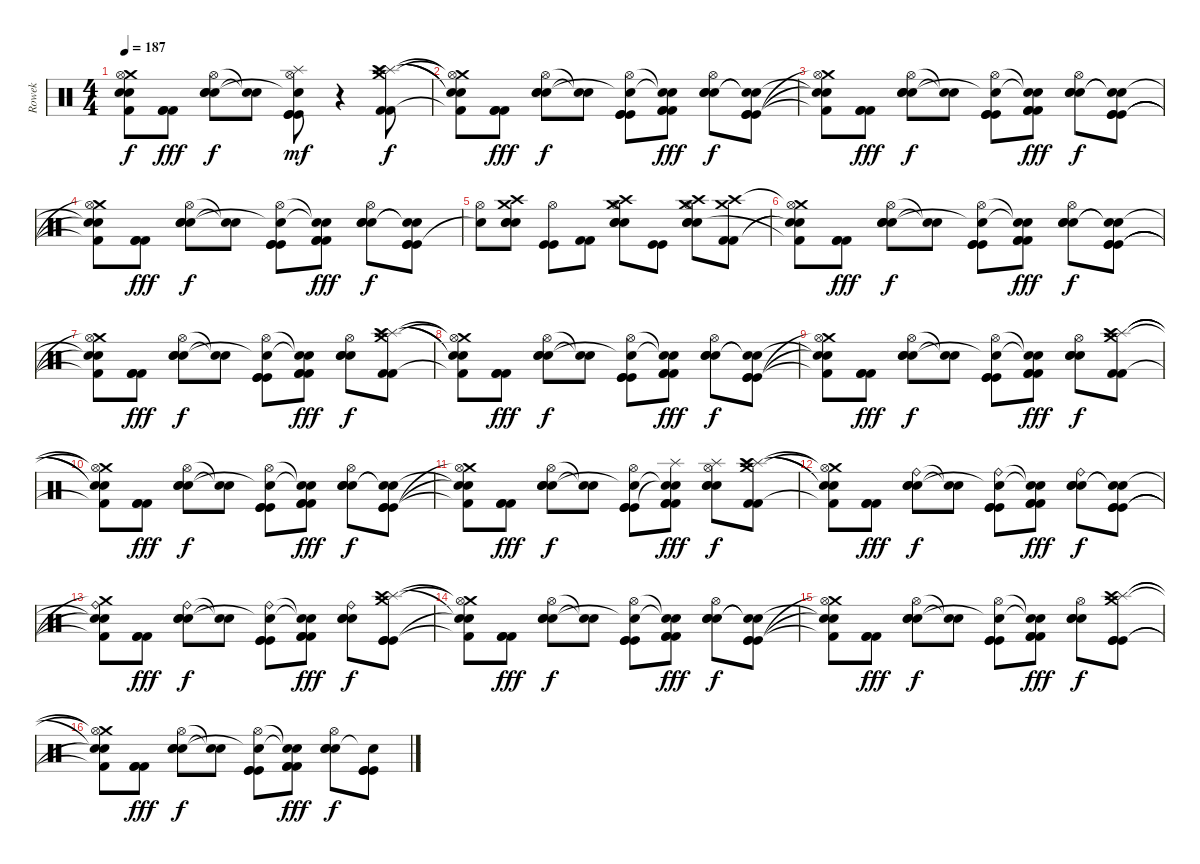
\track ("Rowek" "Rowek") {instrument percussion}
\staff {score}
\articulation defaults
\ts (4 4)
\tempo 187
\clef neutral
\ks c
("Crash medium (hit)"{t} "Hi-Hat (open)" "Snare (hit)"{t} "Snare (hit)"{t} "Kick (hit) 2"{t}).8{dy f} ("Kick (hit) 2" "Kick (hit) 2" "Kick (hit) 2").8{dy fff} ("Hi-Hat (open)" "Electric Snare (hit)" "Electric Snare (hit)" "Electric Snare (hit)").8{dy f} ("Snare (hit)"{t} "Snare (hit)"{t}).8 ("Kick (hit)" "Splash (hit)" "Hi-Hat (open)" "Snare (hit)"{t} "Kick (hit)" "Kick (hit)").8{dy mf} r.4 ("Crash medium (hit)" "Splash (hit)" "Crash high (hit)" "Splash (hit)" "Kick (hit) 2" "Kick (hit) 2").8{dy f} |
("Crash medium (hit)"{t} "Hi-Hat (open)"{t} "Snare (hit)"{t} "Snare (hit)"{t} "Kick (hit) 2"{t}).8 ("Kick (hit) 2" "Kick (hit) 2" "Kick (hit) 2").8{dy fff} ("Hi-Hat (open)" "Electric Snare (hit)" "Electric Snare (hit)" "Electric Snare (hit)").8{dy f} ("Snare (hit)"{t} "Snare (hit)"{t}).8 ("Kick (hit)" "Hi-Hat (open)" "Snare (hit)"{t} "Kick (hit)" "Kick (hit)").8 ("Kick (hit) 2" "Snare (hit)"{t} "Snare (hit)"{t} "Kick (hit) 2" "Kick (hit) 2").8{dy fff} ("Hi-Hat (open)" "Electric Snare (hit)" "Electric Snare (hit)" "Electric Snare (hit)").8{dy f} ("Kick (hit)" "Snare (hit)"{t} "Snare (hit)"{t} "Kick (hit)" "Kick (hit)").8 |
("Crash medium (hit)"{t} "Hi-Hat (open)" "Snare (hit)"{t} "Snare (hit)"{t} "Kick (hit) 2"{t}).8 ("Kick (hit) 2" "Kick (hit) 2" "Kick (hit) 2").8{dy fff} ("Hi-Hat (open)" "Electric Snare (hit)" "Electric Snare (hit)" "Electric Snare (hit)").8{dy f} ("Snare (hit)"{t} "Snare (hit)"{t}).8 ("Kick (hit)" "Hi-Hat (open)" "Snare (hit)"{t} "Kick (hit)" "Kick (hit)").8 ("Kick (hit) 2" "Snare (hit)"{t} "Snare (hit)"{t} "Kick (hit) 2" "Kick (hit) 2").8{dy fff} ("Hi-Hat (open)" "Electric Snare (hit)" "Electric Snare (hit)" "Electric Snare (hit)").8{dy f} ("Kick (hit)" "Snare (hit)"{t} "Snare (hit)"{t} "Kick (hit)" "Kick (hit)").8 |
("Crash medium (hit)"{t} "Hi-Hat (open)" "Snare (hit)"{t} "Snare (hit)"{t} "Kick (hit) 2"{t}).8 ("Kick (hit) 2" "Kick (hit) 2" "Kick (hit) 2").8{dy fff} ("Hi-Hat (open)" "Electric Snare (hit)" "Electric Snare (hit)" "Electric Snare (hit)").8{dy f} ("Snare (hit)"{t} "Snare (hit)"{t}).8 ("Kick (hit)" "Hi-Hat (open)" "Snare (hit)"{t} "Kick (hit)" "Kick (hit)").8 ("Kick (hit) 2" "Snare (hit)"{t} "Snare (hit)"{t} "Kick (hit) 2" "Kick (hit) 2").8{dy fff} ("Hi-Hat (open)" "Electric Snare (hit)" "Electric Snare (hit)" "Electric Snare (hit)").8{dy f} ("Kick (hit)" "Snare (hit)"{t} "Snare (hit)"{t} "Kick (hit)" "Kick (hit)").8 |
("Electric Snare (hit)"{t} "Hi-Hat (open)").8 ("Crash high (hit)" "Crash medium (hit)" "Electric Snare (hit)" "Electric Snare (hit)" "Electric Snare (hit)").8 ("Hi-Hat (open)" "Kick (hit)" "Kick (hit)").8 ("Kick (hit) 2" "Kick (hit) 2").8 ("Crash high (hit)" "Hi-Hat (open)" "Crash medium (hit)" "Electric Snare (hit)" "Electric Snare (hit)" "Electric Snare (hit)").8 ("Kick (hit)" "Kick (hit)").8 ("Crash high (hit)" "Hi-Hat (open)" "Crash medium (hit)" "Electric Snare (hit)" "Electric Snare (hit)" "Electric Snare (hit)").8 ("Crash high (hit)" "Crash medium (hit)" "Kick (hit) 2" "Kick (hit) 2").8 |
("Crash medium (hit)"{t} "Hi-Hat (open)" "Snare (hit)"{t} "Snare (hit)"{t} "Kick (hit) 2"{t}).8 ("Kick (hit) 2" "Kick (hit) 2" "Kick (hit) 2").8{dy fff} ("Hi-Hat (open)" "Electric Snare (hit)" "Electric Snare (hit)" "Electric Snare (hit)").8{dy f} ("Snare (hit)"{t} "Snare (hit)"{t}).8 ("Kick (hit)" "Hi-Hat (open)" "Snare (hit)"{t} "Kick (hit)" "Kick (hit)").8 ("Kick (hit) 2" "Snare (hit)"{t} "Snare (hit)"{t} "Kick (hit) 2" "Kick (hit) 2").8{dy fff} ("Hi-Hat (open)" "Electric Snare (hit)" "Electric Snare (hit)" "Electric Snare (hit)").8{dy f} ("Kick (hit)" "Snare (hit)"{t} "Snare (hit)"{t} "Kick (hit)" "Kick (hit)").8 |
("Crash medium (hit)"{t} "Hi-Hat (open)" "Snare (hit)"{t} "Snare (hit)"{t} "Kick (hit) 2"{t}).8 ("Kick (hit) 2" "Kick (hit) 2" "Kick (hit) 2").8{dy fff} ("Hi-Hat (open)" "Electric Snare (hit)" "Electric Snare (hit)" "Electric Snare (hit)").8{dy f} ("Snare (hit)"{t} "Snare (hit)"{t}).8 ("Kick (hit)" "Hi-Hat (open)" "Snare (hit)"{t} "Kick (hit)" "Kick (hit)").8 ("Kick (hit) 2" "Snare (hit)"{t} "Snare (hit)"{t} "Kick (hit) 2" "Kick (hit) 2").8{dy fff} ("Hi-Hat (open)" "Electric Snare (hit)" "Electric Snare (hit)" "Electric Snare (hit)").8{dy f} ("Splash (hit)" "Crash medium (hit)" "Splash (hit)" "Crash high (hit)" "Kick (hit) 2" "Kick (hit) 2").8 |
("Crash medium (hit)"{t} "Hi-Hat (open)"{t} "Snare (hit)"{t} "Snare (hit)"{t} "Kick (hit) 2"{t}).8 ("Kick (hit) 2" "Kick (hit) 2" "Kick (hit) 2").8{dy fff} ("Hi-Hat (open)" "Electric Snare (hit)" "Electric Snare (hit)" "Electric Snare (hit)").8{dy f} ("Snare (hit)"{t} "Snare (hit)"{t}).8 ("Kick (hit)" "Hi-Hat (open)" "Snare (hit)"{t} "Kick (hit)" "Kick (hit)").8 ("Kick (hit) 2" "Snare (hit)"{t} "Snare (hit)"{t} "Kick (hit) 2" "Kick (hit) 2").8{dy fff} ("Hi-Hat (open)" "Electric Snare (hit)" "Electric Snare (hit)" "Electric Snare (hit)").8{dy f} ("Kick (hit)" "Snare (hit)"{t} "Snare (hit)"{t} "Kick (hit)" "Kick (hit)").8 |
("Crash medium (hit)"{t} "Hi-Hat (open)" "Snare (hit)"{t} "Snare (hit)"{t} "Kick (hit) 2"{t}).8 ("Kick (hit) 2" "Kick (hit) 2" "Kick (hit) 2").8{dy fff} ("Hi-Hat (open)" "Electric Snare (hit)" "Electric Snare (hit)" "Electric Snare (hit)").8{dy f} ("Snare (hit)"{t} "Snare (hit)"{t}).8 ("Kick (hit)" "Hi-Hat (open)" "Snare (hit)"{t} "Kick (hit)" "Kick (hit)").8 ("Kick (hit) 2" "Snare (hit)"{t} "Snare (hit)"{t} "Kick (hit) 2" "Kick (hit) 2").8{dy fff} ("Hi-Hat (open)" "Electric Snare (hit)" "Electric Snare (hit)" "Electric Snare (hit)").8{dy f} ("Splash (hit)" "Crash medium (hit)" "Splash (hit)" "Crash high (hit)" "Kick (hit) 2" "Kick (hit) 2").8 |
("Crash medium (hit)"{t} "Hi-Hat (open)"{t} "Snare (hit)"{t} "Snare (hit)"{t} "Kick (hit) 2"{t}).8 ("Kick (hit) 2" "Kick (hit) 2" "Kick (hit) 2").8{dy fff} ("Hi-Hat (open)" "Electric Snare (hit)" "Electric Snare (hit)" "Electric Snare (hit)").8{dy f} ("Snare (hit)"{t} "Snare (hit)"{t}).8 ("Kick (hit)" "Hi-Hat (open)" "Snare (hit)"{t} "Kick (hit)" "Kick (hit)").8 ("Kick (hit) 2" "Snare (hit)"{t} "Snare (hit)"{t} "Kick (hit) 2" "Kick (hit) 2").8{dy fff} ("Hi-Hat (open)" "Electric Snare (hit)" "Electric Snare (hit)" "Electric Snare (hit)").8{dy f} ("Kick (hit)" "Snare (hit)"{t} "Snare (hit)"{t} "Kick (hit)" "Kick (hit)").8 |
("Crash medium (hit)"{t} "Hi-Hat (open)" "Snare (hit)"{t} "Snare (hit)"{t} "Kick (hit) 2"{t}).8 ("Kick (hit) 2" "Kick (hit) 2" "Kick (hit) 2").8{dy fff} ("Hi-Hat (open)" "Electric Snare (hit)" "Electric Snare (hit)" "Electric Snare (hit)").8{dy f} ("Snare (hit)"{t} "Snare (hit)"{t}).8 ("Kick (hit)" "Hi-Hat (open)" "Snare (hit)"{t} "Kick (hit)" "Kick (hit)").8 ("Kick (hit) 2" "Splash (hit)" "Snare (hit)"{t} "Snare (hit)"{t} "Kick (hit) 2" "Kick (hit) 2").8{dy fff} ("Splash (hit)" "Hi-Hat (open)" "Electric Snare (hit)" "Electric Snare (hit)" "Electric Snare (hit)").8{dy f} ("Splash (hit)" "Crash medium (hit)" "Splash (hit)" "Crash high (hit)" "Kick (hit) 2" "Kick (hit) 2").8 |
("Crash medium (hit)"{t} "Hi-Hat (open)"{t} "Snare (hit)"{t} "Snare (hit)"{t} "Kick (hit) 2"{t}).8 ("Kick (hit) 2" "Kick (hit) 2" "Kick (hit) 2").8{dy fff} ("Ride (bell)" "Electric Snare (hit)" "Electric Snare (hit)" "Electric Snare (hit)").8{dy f} ("Snare (hit)"{t} "Snare (hit)"{t}).8 ("Kick (hit)" "Ride (bell)" "Snare (hit)"{t} "Kick (hit)" "Kick (hit)").8 ("Kick (hit) 2" "Snare (hit)"{t} "Snare (hit)"{t} "Kick (hit) 2" "Kick (hit) 2").8{dy fff} ("Ride (bell)" "Electric Snare (hit)" "Electric Snare (hit)" "Electric Snare (hit)").8{dy f} ("Kick (hit)" "Snare (hit)"{t} "Snare (hit)"{t} "Kick (hit)" "Kick (hit)").8 |
("Crash medium (hit)"{t} "Ride (bell)" "Snare (hit)"{t} "Snare (hit)"{t} "Kick (hit) 2"{t}).8 ("Kick (hit) 2" "Kick (hit) 2" "Kick (hit) 2").8{dy fff} ("Ride (bell)" "Electric Snare (hit)" "Electric Snare (hit)" "Electric Snare (hit)").8{dy f} ("Snare (hit)"{t} "Snare (hit)"{t}).8 ("Kick (hit)" "Ride (bell)" "Snare (hit)"{t} "Kick (hit)" "Kick (hit)").8 ("Kick (hit) 2" "Snare (hit)"{t} "Snare (hit)"{t} "Kick (hit) 2" "Kick (hit) 2").8{dy fff} ("Ride (bell)" "Electric Snare (hit)" "Electric Snare (hit)" "Electric Snare (hit)").8{dy f} ("Crash medium (hit)" "Splash (hit)" "Kick (hit)" "Crash high (hit)" "Kick (hit)" "Kick (hit)").8 |
("Crash medium (hit)"{t} "Hi-Hat (open)"{t} "Snare (hit)"{t} "Snare (hit)"{t} "Kick (hit) 2"{t}).8 ("Kick (hit) 2" "Kick (hit) 2" "Kick (hit) 2").8{dy fff} ("Hi-Hat (open)" "Electric Snare (hit)" "Electric Snare (hit)" "Electric Snare (hit)").8{dy f} ("Snare (hit)"{t} "Snare (hit)"{t}).8 ("Kick (hit)" "Hi-Hat (open)" "Snare (hit)"{t} "Kick (hit)" "Kick (hit)").8 ("Kick (hit) 2" "Snare (hit)"{t} "Snare (hit)"{t} "Kick (hit) 2" "Kick (hit) 2").8{dy fff} ("Hi-Hat (open)" "Electric Snare (hit)" "Electric Snare (hit)" "Electric Snare (hit)").8{dy f} ("Kick (hit)" "Snare (hit)"{t} "Snare (hit)"{t} "Kick (hit)" "Kick (hit)").8 |
("Crash medium (hit)"{t} "Hi-Hat (open)" "Snare (hit)"{t} "Snare (hit)"{t} "Kick (hit) 2"{t}).8 ("Kick (hit) 2" "Kick (hit) 2" "Kick (hit) 2").8{dy fff} ("Hi-Hat (open)" "Electric Snare (hit)" "Electric Snare (hit)" "Electric Snare (hit)").8{dy f} ("Snare (hit)"{t} "Snare (hit)"{t}).8 ("Kick (hit)" "Hi-Hat (open)" "Snare (hit)"{t} "Kick (hit)" "Kick (hit)").8 ("Kick (hit) 2" "Snare (hit)"{t} "Snare (hit)"{t} "Kick (hit) 2" "Kick (hit) 2").8{dy fff} ("Hi-Hat (open)" "Electric Snare (hit)" "Electric Snare (hit)" "Electric Snare (hit)").8{dy f} ("Crash medium (hit)" "Splash (hit)" "Crash high (hit)" "Kick (hit)" "Kick (hit)" "Kick (hit)").8 |
("Crash medium (hit)"{t} "Hi-Hat (open)"{t} "Snare (hit)"{t} "Snare (hit)"{t} "Kick (hit) 2"{t}).8 ("Kick (hit) 2" "Kick (hit) 2" "Kick (hit) 2").8{dy fff} ("Hi-Hat (open)" "Electric Snare (hit)" "Electric Snare (hit)" "Electric Snare (hit)").8{dy f} ("Snare (hit)"{t} "Snare (hit)"{t}).8 ("Kick (hit)" "Hi-Hat (open)" "Snare (hit)"{t} "Kick (hit)" "Kick (hit)").8 ("Kick (hit) 2" "Snare (hit)"{t} "Snare (hit)"{t} "Kick (hit) 2" "Kick (hit) 2").8{dy fff} ("Hi-Hat (open)" "Electric Snare (hit)" "Electric Snare (hit)" "Electric Snare (hit)").8{dy f} ("Kick (hit)" "Snare (hit)"{t} "Kick (hit)" "Kick (hit)").8
